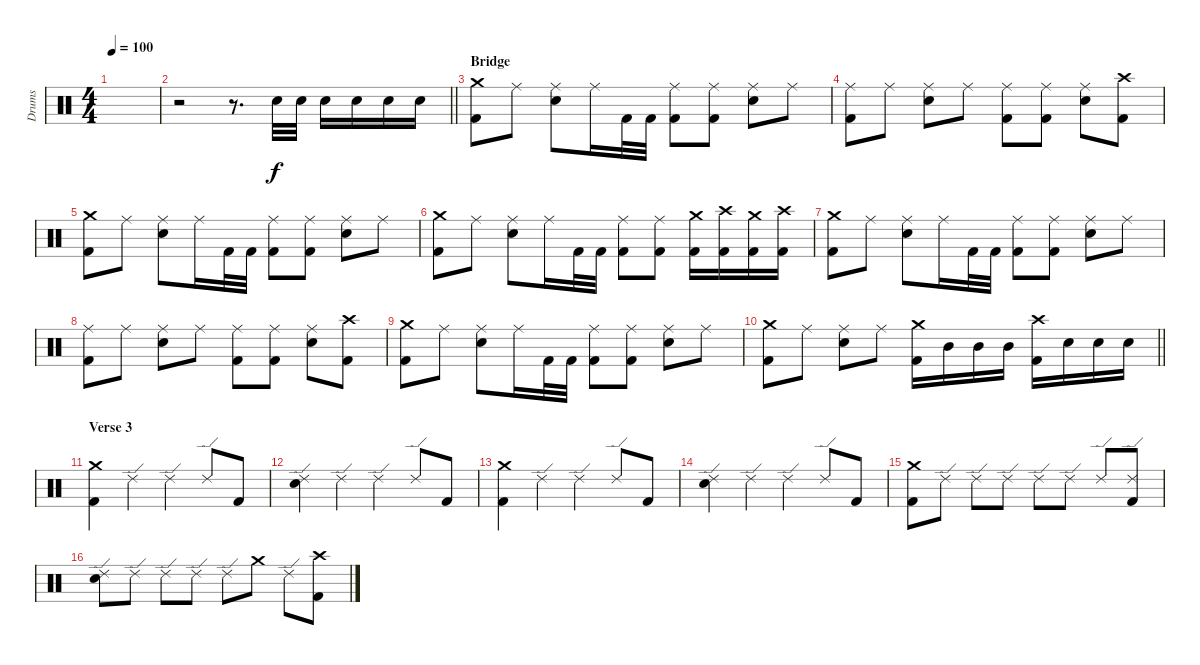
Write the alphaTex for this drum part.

\track ("Drums" "Drums") {instrument percussion}
\staff {score}
\articulation defaults
\ts (4 4)
\tempo 100
\clef neutral
\ks c
|
\barLineRight lightlight
r.2 r.8{d} "Snare (hit) 2".32{dy f} "Snare (hit) 2".32 "Snare (hit) 2".16 "Snare (hit) 2".16 "Snare (hit) 2".16 "Snare (hit) 2".16 |
\section ("" "Bridge")
("Kick (hit) 2" "Crash medium (hit)").8 "Ride (middle)".8 ("Snare (hit) 2" "Ride (middle)").8 "Ride (middle)".16 "Kick (hit) 2".32 "Kick (hit) 2".32 ("Kick (hit) 2" "Ride (middle)").8 ("Kick (hit) 2" "Ride (middle)").8 ("Snare (hit) 2" "Ride (middle)").8 "Ride (middle)".8 |
("Kick (hit) 2" "Ride (middle)").8 "Ride (middle)".8 ("Snare (hit) 2" "Ride (middle)").8 "Ride (middle)".8 ("Kick (hit) 2" "Ride (middle)").8 ("Kick (hit) 2" "Ride (middle)").8 ("Snare (hit) 2" "Ride (middle)").8 ("Kick (hit) 2" "Crash high (hit)").8 |
("Kick (hit) 2" "Crash medium (hit)").8 "Ride (middle)".8 ("Snare (hit) 2" "Ride (middle)").8 "Ride (middle)".16 "Kick (hit) 2".32 "Kick (hit) 2".32 ("Kick (hit) 2" "Ride (middle)").8 ("Kick (hit) 2" "Ride (middle)").8 ("Snare (hit) 2" "Ride (middle)").8 "Ride (middle)".8 |
("Kick (hit) 2" "Crash medium (hit)").8 "Ride (middle)".8 ("Snare (hit) 2" "Ride (middle)").8 "Ride (middle)".16 "Kick (hit) 2".32 "Kick (hit) 2".32 ("Kick (hit) 2" "Ride (middle)").8 ("Kick (hit) 2" "Ride (middle)").8 ("Kick (hit) 2" "Crash medium (hit)").16 ("Kick (hit) 2" "Crash high (hit)").16 ("Kick (hit) 2" "Crash medium (hit)").16 ("Kick (hit) 2" "Crash high (hit)").16 |
("Kick (hit) 2" "Crash medium (hit)").8 "Ride (middle)".8 ("Snare (hit) 2" "Ride (middle)").8 "Ride (middle)".16 "Kick (hit) 2".32 "Kick (hit) 2".32 ("Kick (hit) 2" "Ride (middle)").8 ("Kick (hit) 2" "Ride (middle)").8 ("Snare (hit) 2" "Ride (middle)").8 "Ride (middle)".8 |
("Kick (hit) 2" "Ride (middle)").8 "Ride (middle)".8 ("Snare (hit) 2" "Ride (middle)").8 "Ride (middle)".8 ("Kick (hit) 2" "Ride (middle)").8 ("Kick (hit) 2" "Ride (middle)").8 ("Snare (hit) 2" "Ride (middle)").8 ("Kick (hit) 2" "Crash high (hit)").8 |
("Kick (hit) 2" "Crash medium (hit)").8 "Ride (middle)".8 ("Snare (hit) 2" "Ride (middle)").8 "Ride (middle)".16 "Kick (hit) 2".32 "Kick (hit) 2".32 ("Kick (hit) 2" "Ride (middle)").8 ("Kick (hit) 2" "Ride (middle)").8 ("Snare (hit) 2" "Ride (middle)").8 "Ride (middle)".8 |
\barLineRight lightlight
("Kick (hit) 2" "Crash medium (hit)").8 "Ride (middle)".8 ("Snare (hit) 2" "Ride (middle)").8 "Ride (middle)".8 ("Kick (hit) 2" "Crash medium (hit)").16 "Mid Tom (hit)".16 "Mid Tom (hit)".16 "Mid Tom (hit)".16 ("Kick (hit) 2" "Crash high (hit)").16 "Snare (hit) 2".16 "Snare (hit) 2".16 "Snare (hit) 2".16 |
\section ("" "Verse 3")
("Kick (hit) 2" "Crash medium (hit)").4 "Ride (edge) 2".4 "Ride (edge) 2".4 "Ride (edge) 2".8 "Kick (hit) 2".8 |
("Snare (hit) 2" "Ride (edge) 2").4 "Ride (edge) 2".4 "Ride (edge) 2".4 "Ride (edge) 2".8 "Kick (hit) 2".8 |
("Kick (hit) 2" "Crash medium (hit)").4 "Ride (edge) 2".4 "Ride (edge) 2".4 "Ride (edge) 2".8 "Kick (hit) 2".8 |
("Snare (hit) 2" "Ride (edge) 2").4 "Ride (edge) 2".4 "Ride (edge) 2".4 "Ride (edge) 2".8 "Kick (hit) 2".8 |
("Kick (hit) 2" "Crash medium (hit)").8 "Ride (edge) 2".8 "Ride (edge) 2".8 "Ride (edge) 2".8 "Ride (edge) 2".8 "Ride (edge) 2".8 "Ride (edge) 2".8 ("Kick (hit) 2" "Ride (edge) 2").8 |
("Snare (hit) 2" "Ride (edge) 2").8 "Ride (edge) 2".8 "Ride (edge) 2".8 "Ride (edge) 2".8 "Ride (edge) 2".8 "Crash medium (hit)".8 "Ride (edge) 2".8 ("Kick (hit) 2" "Crash high (hit)").8
